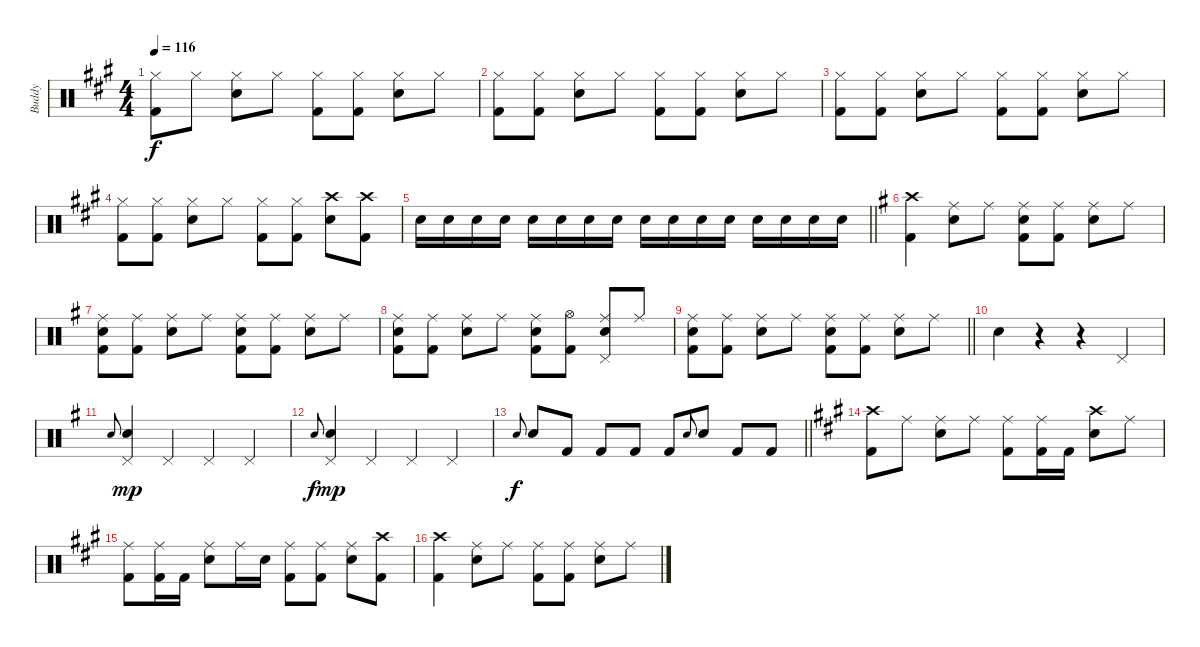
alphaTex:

\track ("Buddy" "Buddy") {instrument percussion}
\staff {score}
\articulation defaults
\ts (4 4)
\tempo 116
\clef neutral
\ks a
("Hi-Hat (closed)" "Kick (hit) 2").8{dy f} "Hi-Hat (closed)".8 ("Hi-Hat (closed)" "Snare (hit) 2").8 "Hi-Hat (closed)".8 ("Hi-Hat (closed)" "Kick (hit) 2").8 ("Hi-Hat (closed)" "Kick (hit) 2").8 ("Hi-Hat (closed)" "Snare (hit) 2").8 "Hi-Hat (closed)".8 |
("Hi-Hat (closed)" "Kick (hit) 2").8 ("Hi-Hat (closed)" "Kick (hit) 2").8 ("Hi-Hat (closed)" "Snare (hit) 2").8 "Hi-Hat (closed)".8 ("Hi-Hat (closed)" "Kick (hit) 2").8 ("Hi-Hat (closed)" "Kick (hit) 2").8 ("Hi-Hat (closed)" "Snare (hit) 2").8 "Hi-Hat (closed)".8 |
("Hi-Hat (closed)" "Kick (hit) 2").8 ("Hi-Hat (closed)" "Kick (hit) 2").8 ("Hi-Hat (closed)" "Snare (hit) 2").8 "Hi-Hat (closed)".8 ("Hi-Hat (closed)" "Kick (hit) 2").8 ("Hi-Hat (closed)" "Kick (hit) 2").8 ("Hi-Hat (closed)" "Snare (hit) 2").8 "Hi-Hat (closed)".8 |
("Hi-Hat (closed)" "Kick (hit) 2").8 ("Hi-Hat (closed)" "Kick (hit) 2").8 ("Hi-Hat (closed)" "Snare (hit) 2").8 "Hi-Hat (closed)".8 ("Hi-Hat (closed)" "Kick (hit) 2").8 ("Hi-Hat (closed)" "Kick (hit) 2").8 ("Crash high (hit)" "Snare (hit) 2").8 ("Crash high (hit)" "Kick (hit) 2").8 |
\barLineRight lightlight "Snare (hit) 2".16 "Snare (hit) 2".16 "Snare (hit) 2".16 "Snare (hit) 2".16 "Snare (hit) 2".16 "Snare (hit) 2".16 "Snare (hit) 2".16 "Snare (hit) 2".16 "Snare (hit) 2".16 "Snare (hit) 2".16 "Snare (hit) 2".16 "Snare (hit) 2".16 "Snare (hit) 2".16 "Snare (hit) 2".16 "Snare (hit) 2".16 "Snare (hit) 2".16
|
\ks eminor
("Crash high (hit)" "Kick (hit) 2").4 ("Ride (middle)" "Snare (hit) 2").8 "Ride (middle)".8 ("Ride (middle)" "Snare (hit) 2" "Kick (hit) 2").8 ("Ride (middle)" "Kick (hit) 2").8 ("Ride (middle)" "Snare (hit) 2").8 "Ride (middle)".8 |
("Ride (middle)" "Snare (hit) 2" "Kick (hit) 2").8 ("Ride (middle)" "Kick (hit) 2").8 ("Ride (middle)" "Snare (hit) 2").8 "Ride (middle)".8 ("Ride (middle)" "Snare (hit) 2" "Kick (hit) 2").8 ("Ride (middle)" "Kick (hit) 2").8 ("Ride (middle)" "Snare (hit) 2").8 "Ride (middle)".8 |
("Ride (middle)" "Snare (hit) 2" "Kick (hit) 2").8 ("Ride (middle)" "Kick (hit) 2").8 ("Ride (middle)" "Snare (hit) 2").8 "Ride (middle)".8 ("Ride (middle)" "Snare (hit) 2" "Kick (hit) 2").8 ("Hi-Hat (open)" "Kick (hit) 2").8 ("Ride (middle)" "Snare (hit) 2" "Pedal Hi-Hat (hit)").8 "Ride (middle)".8 |
\barLineRight lightlight
("Ride (middle)" "Snare (hit) 2" "Kick (hit) 2").8 ("Ride (middle)" "Kick (hit) 2").8 ("Ride (middle)" "Snare (hit) 2").8 "Ride (middle)".8 ("Ride (middle)" "Snare (hit) 2" "Kick (hit) 2").8 ("Ride (middle)" "Kick (hit) 2").8 ("Ride (middle)" "Snare (hit) 2").8 "Ride (middle)".8 |
"Snare (hit) 2".4 r.4 r.4 "Pedal Hi-Hat (hit)".4 |
"Snare (hit) 2".8{gr onbeat} ("Snare (hit) 2" "Pedal Hi-Hat (hit)").4{dy mp} "Pedal Hi-Hat (hit)".4 "Pedal Hi-Hat (hit)".4 "Pedal Hi-Hat (hit)".4 |
"Snare (hit) 2".8{gr onbeat dy f} ("Snare (hit) 2" "Pedal Hi-Hat (hit)").4{dy mp} "Pedal Hi-Hat (hit)".4 "Pedal Hi-Hat (hit)".4 "Pedal Hi-Hat (hit)".4 |
\barLineRight lightlight "Snare (hit) 2".8{gr onbeat dy f} "Snare (hit) 2".8 "Kick (hit) 2".8 "Kick (hit) 2".8 "Kick (hit) 2".8 "Kick (hit) 2".8 "Snare (hit) 2".8{gr onbeat} "Snare (hit) 2".8 "Kick (hit) 2".8 "Kick (hit) 2".8
|
\ks a
("Crash high (hit)" "Kick (hit) 2").8 "Ride (middle)".8 ("Ride (middle)" "Snare (hit) 2").8 "Ride (middle)".8 ("Ride (middle)" "Kick (hit) 2").8 ("Ride (middle)" "Kick (hit) 2").16 "Kick (hit) 2".16 ("Crash high (hit)" "Snare (hit) 2").8 "Ride (middle)".8 |
("Ride (middle)" "Kick (hit) 2").8 ("Ride (middle)" "Kick (hit) 2").16 "Kick (hit) 2".16 ("Ride (middle)" "Snare (hit) 2").8 "Ride (middle)".16 "Snare (hit) 2".16 ("Ride (middle)" "Kick (hit) 2").8 ("Ride (middle)" "Kick (hit) 2").8 ("Ride (middle)" "Snare (hit) 2").8 ("Crash high (hit)" "Kick (hit) 2").8 |
("Crash high (hit)" "Kick (hit) 2").4 ("Ride (middle)" "Snare (hit) 2").8 "Ride (middle)".8 ("Ride (middle)" "Kick (hit) 2").8 ("Ride (middle)" "Kick (hit) 2").8 ("Ride (middle)" "Snare (hit) 2").8 "Ride (middle)".8
